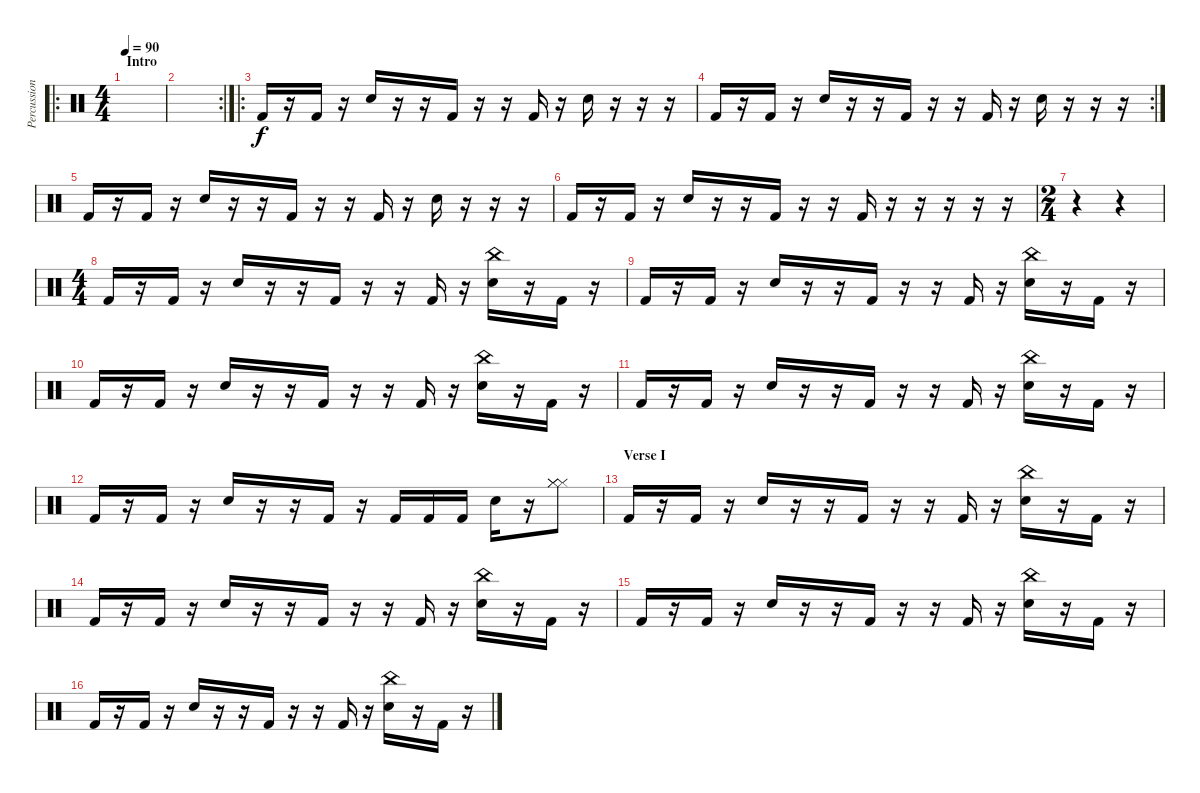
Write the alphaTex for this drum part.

\track ("Percussion" "Percussion") {instrument percussion}
\staff {score}
\articulation defaults
\ro
\ts (4 4)
\section ("" "Intro")
\tempo 90
\clef neutral
\ks c
|
\rc 2
|
\ro "Kick (hit) 2".16
r.16 "Kick (hit) 2".16 r.16 "Snare (hit) 2".16 r.16 r.16 "Kick (hit) 2".16 r.16 r.16 "Kick (hit) 2".16 r.16 "Snare (hit) 2".16 r.16 r.16 r.16 |
\rc 2 "Kick (hit) 2".16
r.16 "Kick (hit) 2".16 r.16 "Snare (hit) 2".16 r.16 r.16 "Kick (hit) 2".16 r.16 r.16 "Kick (hit) 2".16 r.16 "Snare (hit) 2".16 r.16 r.16 r.16 |
"Kick (hit) 2".16 r.16 "Kick (hit) 2".16 r.16 "Snare (hit) 2".16 r.16 r.16 "Kick (hit) 2".16 r.16 r.16 "Kick (hit) 2".16 r.16 "Snare (hit) 2".16 r.16 r.16 r.16 |
"Kick (hit) 2".16 r.16 "Kick (hit) 2".16 r.16 "Snare (hit) 2".16 r.16 r.16 "Kick (hit) 2".16 r.16 r.16 "Kick (hit) 2".16 r.16 r.16 r.16 r.16 r.16 |
\ts (2 4)
r.4 r.4 |
\ts (4 4)
"Kick (hit) 2".16 r.16 "Kick (hit) 2".16 r.16 "Snare (hit) 2".16 r.16 r.16 "Kick (hit) 2".16 r.16 r.16 "Kick (hit) 2".16 r.16 ("China (hit)" "Snare (hit) 2").16 r.16 "Kick (hit) 2".16 r.16 |
"Kick (hit) 2".16 r.16 "Kick (hit) 2".16 r.16 "Snare (hit) 2".16 r.16 r.16 "Kick (hit) 2".16 r.16 r.16 "Kick (hit) 2".16 r.16 ("China (hit)" "Snare (hit) 2").16 r.16 "Kick (hit) 2".16 r.16 |
"Kick (hit) 2".16 r.16 "Kick (hit) 2".16 r.16 "Snare (hit) 2".16 r.16 r.16 "Kick (hit) 2".16 r.16 r.16 "Kick (hit) 2".16 r.16 ("China (hit)" "Snare (hit) 2").16 r.16 "Kick (hit) 2".16 r.16 |
"Kick (hit) 2".16 r.16 "Kick (hit) 2".16 r.16 "Snare (hit) 2".16 r.16 r.16 "Kick (hit) 2".16 r.16 r.16 "Kick (hit) 2".16 r.16 ("China (hit)" "Snare (hit) 2").16 r.16 "Kick (hit) 2".16 r.16 |
"Kick (hit) 2".16 r.16 "Kick (hit) 2".16 r.16 "Snare (hit) 2".16 r.16 r.16 "Kick (hit) 2".16 r.16 "Kick (hit) 2".16 "Kick (hit) 2".16 "Kick (hit) 2".16 "Snare (hit) 2".16 r.16 ("Hi-Hat (closed)" "Hi-Hat (closed)" "Hi-Hat (closed)").8 |
\section ("" "Verse I")
"Kick (hit) 2".16 r.16 "Kick (hit) 2".16 r.16 "Snare (hit) 2".16 r.16 r.16 "Kick (hit) 2".16 r.16 r.16 "Kick (hit) 2".16 r.16 ("China (hit)" "Snare (hit) 2").16 r.16 "Kick (hit) 2".16 r.16 |
"Kick (hit) 2".16 r.16 "Kick (hit) 2".16 r.16 "Snare (hit) 2".16 r.16 r.16 "Kick (hit) 2".16 r.16 r.16 "Kick (hit) 2".16 r.16 ("China (hit)" "Snare (hit) 2").16 r.16 "Kick (hit) 2".16 r.16 |
"Kick (hit) 2".16 r.16 "Kick (hit) 2".16 r.16 "Snare (hit) 2".16 r.16 r.16 "Kick (hit) 2".16 r.16 r.16 "Kick (hit) 2".16 r.16 ("China (hit)" "Snare (hit) 2").16 r.16 "Kick (hit) 2".16 r.16 |
"Kick (hit) 2".16 r.16 "Kick (hit) 2".16 r.16 "Snare (hit) 2".16 r.16 r.16 "Kick (hit) 2".16 r.16 r.16 "Kick (hit) 2".16 r.16 ("China (hit)" "Snare (hit) 2").16 r.16 "Kick (hit) 2".16 r.16
